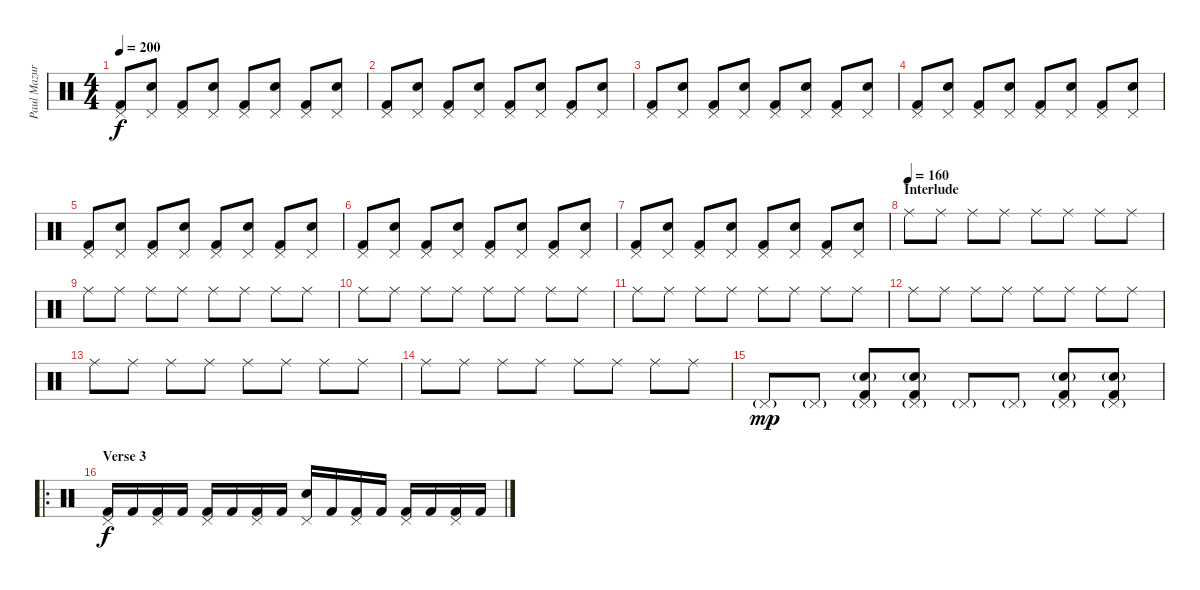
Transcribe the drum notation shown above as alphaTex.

\track ("Paul Mazurkiewicz" "Paul Mazur") {instrument percussion}
\staff {score}
\articulation defaults
\ts (4 4)
\tempo 200
\clef neutral
\ks c
("Pedal Hi-Hat (hit)" "Kick (hit) 2").8{dy f} ("Pedal Hi-Hat (hit)" "Electric Snare (hit)").8 ("Pedal Hi-Hat (hit)" "Kick (hit) 2").8 ("Pedal Hi-Hat (hit)" "Electric Snare (hit)").8 ("Pedal Hi-Hat (hit)" "Kick (hit) 2").8 ("Pedal Hi-Hat (hit)" "Electric Snare (hit)").8 ("Pedal Hi-Hat (hit)" "Kick (hit) 2").8 ("Pedal Hi-Hat (hit)" "Electric Snare (hit)").8 |
("Pedal Hi-Hat (hit)" "Kick (hit) 2").8 ("Pedal Hi-Hat (hit)" "Electric Snare (hit)").8 ("Pedal Hi-Hat (hit)" "Kick (hit) 2").8 ("Pedal Hi-Hat (hit)" "Electric Snare (hit)").8 ("Pedal Hi-Hat (hit)" "Kick (hit) 2").8 ("Pedal Hi-Hat (hit)" "Electric Snare (hit)").8 ("Pedal Hi-Hat (hit)" "Kick (hit) 2").8 ("Pedal Hi-Hat (hit)" "Electric Snare (hit)").8 |
("Pedal Hi-Hat (hit)" "Kick (hit) 2").8 ("Pedal Hi-Hat (hit)" "Electric Snare (hit)").8 ("Pedal Hi-Hat (hit)" "Kick (hit) 2").8 ("Pedal Hi-Hat (hit)" "Electric Snare (hit)").8 ("Pedal Hi-Hat (hit)" "Kick (hit) 2").8 ("Pedal Hi-Hat (hit)" "Electric Snare (hit)").8 ("Pedal Hi-Hat (hit)" "Kick (hit) 2").8 ("Pedal Hi-Hat (hit)" "Electric Snare (hit)").8 |
("Pedal Hi-Hat (hit)" "Kick (hit) 2").8 ("Pedal Hi-Hat (hit)" "Electric Snare (hit)").8 ("Pedal Hi-Hat (hit)" "Kick (hit) 2").8 ("Pedal Hi-Hat (hit)" "Electric Snare (hit)").8 ("Pedal Hi-Hat (hit)" "Kick (hit) 2").8 ("Pedal Hi-Hat (hit)" "Electric Snare (hit)").8 ("Pedal Hi-Hat (hit)" "Kick (hit) 2").8 ("Pedal Hi-Hat (hit)" "Electric Snare (hit)").8 |
("Pedal Hi-Hat (hit)" "Kick (hit) 2").8 ("Pedal Hi-Hat (hit)" "Electric Snare (hit)").8 ("Pedal Hi-Hat (hit)" "Kick (hit) 2").8 ("Pedal Hi-Hat (hit)" "Electric Snare (hit)").8 ("Pedal Hi-Hat (hit)" "Kick (hit) 2").8 ("Pedal Hi-Hat (hit)" "Electric Snare (hit)").8 ("Pedal Hi-Hat (hit)" "Kick (hit) 2").8 ("Pedal Hi-Hat (hit)" "Electric Snare (hit)").8 |
("Pedal Hi-Hat (hit)" "Kick (hit) 2").8 ("Pedal Hi-Hat (hit)" "Electric Snare (hit)").8 ("Pedal Hi-Hat (hit)" "Kick (hit) 2").8 ("Pedal Hi-Hat (hit)" "Electric Snare (hit)").8 ("Pedal Hi-Hat (hit)" "Kick (hit) 2").8 ("Pedal Hi-Hat (hit)" "Electric Snare (hit)").8 ("Pedal Hi-Hat (hit)" "Kick (hit) 2").8 ("Pedal Hi-Hat (hit)" "Electric Snare (hit)").8 |
("Pedal Hi-Hat (hit)" "Kick (hit) 2").8 ("Pedal Hi-Hat (hit)" "Electric Snare (hit)").8 ("Pedal Hi-Hat (hit)" "Kick (hit) 2").8 ("Pedal Hi-Hat (hit)" "Electric Snare (hit)").8 ("Pedal Hi-Hat (hit)" "Kick (hit) 2").8 ("Pedal Hi-Hat (hit)" "Electric Snare (hit)").8 ("Pedal Hi-Hat (hit)" "Kick (hit) 2").8 ("Pedal Hi-Hat (hit)" "Electric Snare (hit)").8 |
\section ("" "Interlude")
\tempo (160)
"Ride (middle)".8 "Ride (middle)".8 "Ride (middle)".8 "Ride (middle)".8 "Ride (middle)".8 "Ride (middle)".8 "Ride (middle)".8 "Ride (middle)".8 |
"Ride (middle)".8 "Ride (middle)".8 "Ride (middle)".8 "Ride (middle)".8 "Ride (middle)".8 "Ride (middle)".8 "Ride (middle)".8 "Ride (middle)".8 |
"Ride (middle)".8 "Ride (middle)".8 "Ride (middle)".8 "Ride (middle)".8 "Ride (middle)".8 "Ride (middle)".8 "Ride (middle)".8 "Ride (middle)".8 |
"Ride (middle)".8 "Ride (middle)".8 "Ride (middle)".8 "Ride (middle)".8 "Ride (middle)".8 "Ride (middle)".8 "Ride (middle)".8 "Ride (middle)".8 |
"Ride (middle)".8 "Ride (middle)".8 "Ride (middle)".8 "Ride (middle)".8 "Ride (middle)".8 "Ride (middle)".8 "Ride (middle)".8 "Ride (middle)".8 |
"Ride (middle)".8 "Ride (middle)".8 "Ride (middle)".8 "Ride (middle)".8 "Ride (middle)".8 "Ride (middle)".8 "Ride (middle)".8 "Ride (middle)".8 |
"Ride (middle)".8 "Ride (middle)".8 "Ride (middle)".8 "Ride (middle)".8 "Ride (middle)".8 "Ride (middle)".8 "Ride (middle)".8 "Ride (middle)".8 |
"Pedal Hi-Hat (hit)"{g}.8{dy mp} "Pedal Hi-Hat (hit)"{g}.8 ("Pedal Hi-Hat (hit)"{g} "Snare (hit) 2"{g} "Kick (hit) 2").8 ("Pedal Hi-Hat (hit)"{g} "Snare (hit) 2"{g} "Kick (hit) 2").8 "Pedal Hi-Hat (hit)"{g}.8 "Pedal Hi-Hat (hit)"{g}.8 ("Pedal Hi-Hat (hit)"{g} "Snare (hit) 2"{g} "Kick (hit) 2").8 ("Pedal Hi-Hat (hit)"{g} "Snare (hit) 2"{g} "Kick (hit) 2").8 |
\ro
\section ("" "Verse 3")
("Pedal Hi-Hat (hit)" "Kick (hit) 2").16{dy f} "Kick (hit) 2".16 ("Pedal Hi-Hat (hit)" "Kick (hit) 2").16 "Kick (hit) 2".16 ("Pedal Hi-Hat (hit)" "Kick (hit) 2").16 "Kick (hit) 2".16 ("Pedal Hi-Hat (hit)" "Kick (hit) 2").16 "Kick (hit) 2".16 ("Pedal Hi-Hat (hit)" "Electric Snare (hit)").16 "Kick (hit) 2".16 ("Pedal Hi-Hat (hit)" "Kick (hit) 2").16 "Kick (hit) 2".16 ("Pedal Hi-Hat (hit)" "Kick (hit) 2").16 "Kick (hit) 2".16 ("Pedal Hi-Hat (hit)" "Kick (hit) 2").16 "Kick (hit) 2".16
